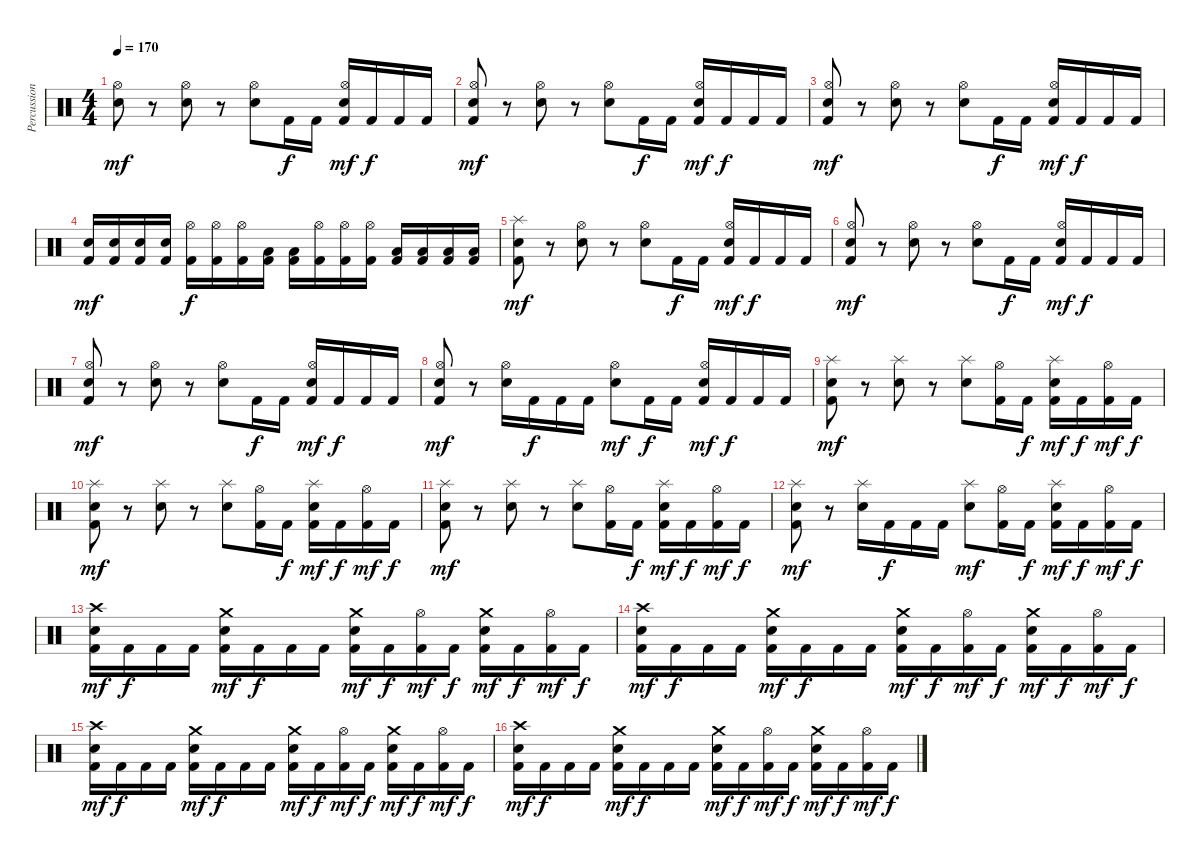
\track ("Percussion" "Percussion") {instrument percussion}
\staff {score}
\articulation defaults
\ts (4 4)
\tempo 170
\clef neutral
\ks c
("Snare (hit) 2" "Hi-Hat (open)").8{dy mf} r.8 ("Snare (hit) 2" "Hi-Hat (open)").8 r.8 ("Snare (hit) 2" "Hi-Hat (open)").8 "Kick (hit) 2".16{dy f} "Kick (hit) 2".16 ("Snare (hit) 2" "Hi-Hat (open)" "Kick (hit) 2").16{dy mf} "Kick (hit) 2".16{dy f} "Kick (hit) 2".16 "Kick (hit) 2".16 |
("Snare (hit) 2" "Hi-Hat (open)" "Kick (hit) 2").8{dy mf} r.8 ("Snare (hit) 2" "Hi-Hat (open)").8 r.8 ("Snare (hit) 2" "Hi-Hat (open)").8 "Kick (hit) 2".16{dy f} "Kick (hit) 2".16 ("Snare (hit) 2" "Hi-Hat (open)" "Kick (hit) 2").16{dy mf} "Kick (hit) 2".16{dy f} "Kick (hit) 2".16 "Kick (hit) 2".16 |
("Snare (hit) 2" "Hi-Hat (open)" "Kick (hit) 2").8{dy mf} r.8 ("Snare (hit) 2" "Hi-Hat (open)").8 r.8 ("Snare (hit) 2" "Hi-Hat (open)").8 "Kick (hit) 2".16{dy f} "Kick (hit) 2".16 ("Snare (hit) 2" "Hi-Hat (open)" "Kick (hit) 2").16{dy mf} "Kick (hit) 2".16{dy f} "Kick (hit) 2".16 "Kick (hit) 2".16 |
("Snare (hit) 2" "Kick (hit) 2").16{dy mf} ("Snare (hit) 2" "Kick (hit) 2").16 ("Snare (hit) 2" "Kick (hit) 2").16 ("Snare (hit) 2" "Kick (hit) 2").16 ("Hi-Hat (open)" "Kick (hit) 2").16{dy f} ("Hi-Hat (open)" "Kick (hit) 2").16 ("Hi-Hat (open)" "Kick (hit) 2").16 ("Low Tom (hit)" "Kick (hit) 2").16 ("Low Tom (hit)" "Kick (hit) 2").16 ("Hi-Hat (open)" "Kick (hit) 2").16 ("Hi-Hat (open)" "Kick (hit) 2").16 ("Hi-Hat (open)" "Kick (hit) 2").16 ("Low Tom (hit)" "Kick (hit) 2").16 ("Low Tom (hit)" "Kick (hit) 2").16 ("Low Tom (hit)" "Kick (hit) 2").16 ("Low Tom (hit)" "Kick (hit) 2").16 |
("Snare (hit) 2" "Splash (hit)" "Kick (hit) 2").8{dy mf} r.8 ("Snare (hit) 2" "Hi-Hat (open)").8 r.8 ("Snare (hit) 2" "Hi-Hat (open)").8 "Kick (hit) 2".16{dy f} "Kick (hit) 2".16 ("Snare (hit) 2" "Hi-Hat (open)" "Kick (hit) 2").16{dy mf} "Kick (hit) 2".16{dy f} "Kick (hit) 2".16 "Kick (hit) 2".16 |
("Snare (hit) 2" "Hi-Hat (open)" "Kick (hit) 2").8{dy mf} r.8 ("Snare (hit) 2" "Hi-Hat (open)").8 r.8 ("Snare (hit) 2" "Hi-Hat (open)").8 "Kick (hit) 2".16{dy f} "Kick (hit) 2".16 ("Snare (hit) 2" "Hi-Hat (open)" "Kick (hit) 2").16{dy mf} "Kick (hit) 2".16{dy f} "Kick (hit) 2".16 "Kick (hit) 2".16 |
("Snare (hit) 2" "Hi-Hat (open)" "Kick (hit) 2").8{dy mf} r.8 ("Snare (hit) 2" "Hi-Hat (open)").8 r.8 ("Snare (hit) 2" "Hi-Hat (open)").8 "Kick (hit) 2".16{dy f} "Kick (hit) 2".16 ("Snare (hit) 2" "Hi-Hat (open)" "Kick (hit) 2").16{dy mf} "Kick (hit) 2".16{dy f} "Kick (hit) 2".16 "Kick (hit) 2".16 |
("Snare (hit) 2" "Hi-Hat (open)" "Kick (hit) 2").8{dy mf} r.8 ("Snare (hit) 2" "Hi-Hat (open)").16 "Kick (hit) 2".16{dy f} "Kick (hit) 2".16 "Kick (hit) 2".16 ("Snare (hit) 2" "Hi-Hat (open)").8{dy mf} "Kick (hit) 2".16{dy f} "Kick (hit) 2".16 ("Snare (hit) 2" "Hi-Hat (open)" "Kick (hit) 2").16{dy mf} "Kick (hit) 2".16{dy f} "Kick (hit) 2".16 "Kick (hit) 2".16 |
("Snare (hit) 2" "Splash (hit)" "Kick (hit) 2").8{dy mf} r.8 ("Snare (hit) 2" "Splash (hit)").8 r.8 ("Snare (hit) 2" "Splash (hit)").8 ("Hi-Hat (open)" "Kick (hit) 2").16 "Kick (hit) 2".16{dy f} ("Snare (hit) 2" "Splash (hit)" "Kick (hit) 2").16{dy mf} "Kick (hit) 2".16{dy f} ("Hi-Hat (open)" "Kick (hit) 2").16{dy mf} "Kick (hit) 2".16{dy f} |
("Snare (hit) 2" "Splash (hit)" "Kick (hit) 2").8{dy mf} r.8 ("Snare (hit) 2" "Splash (hit)").8 r.8 ("Snare (hit) 2" "Splash (hit)").8 ("Hi-Hat (open)" "Kick (hit) 2").16 "Kick (hit) 2".16{dy f} ("Snare (hit) 2" "Splash (hit)" "Kick (hit) 2").16{dy mf} "Kick (hit) 2".16{dy f} ("Hi-Hat (open)" "Kick (hit) 2").16{dy mf} "Kick (hit) 2".16{dy f} |
("Snare (hit) 2" "Splash (hit)" "Kick (hit) 2").8{dy mf} r.8 ("Snare (hit) 2" "Splash (hit)").8 r.8 ("Snare (hit) 2" "Splash (hit)").8 ("Hi-Hat (open)" "Kick (hit) 2").16 "Kick (hit) 2".16{dy f} ("Snare (hit) 2" "Splash (hit)" "Kick (hit) 2").16{dy mf} "Kick (hit) 2".16{dy f} ("Hi-Hat (open)" "Kick (hit) 2").16{dy mf} "Kick (hit) 2".16{dy f} |
("Snare (hit) 2" "Splash (hit)" "Kick (hit) 2").8{dy mf} r.8 ("Snare (hit) 2" "Splash (hit)").16 "Kick (hit) 2".16{dy f} "Kick (hit) 2".16 "Kick (hit) 2".16 ("Snare (hit) 2" "Splash (hit)").8{dy mf} ("Hi-Hat (open)" "Kick (hit) 2").16 "Kick (hit) 2".16{dy f} ("Snare (hit) 2" "Splash (hit)" "Kick (hit) 2").16{dy mf} "Kick (hit) 2".16{dy f} ("Hi-Hat (open)" "Kick (hit) 2").16{dy mf} "Kick (hit) 2".16{dy f} |
("Snare (hit) 2" "Crash high (hit)" "Kick (hit) 2").16{dy mf} "Kick (hit) 2".16{dy f} "Kick (hit) 2".16 "Kick (hit) 2".16 ("Snare (hit) 2" "Crash medium (hit)" "Kick (hit) 2").16{dy mf} "Kick (hit) 2".16{dy f} "Kick (hit) 2".16 "Kick (hit) 2".16 ("Snare (hit) 2" "Crash medium (hit)" "Kick (hit) 2").16{dy mf} "Kick (hit) 2".16{dy f} ("Hi-Hat (open)" "Kick (hit) 2").16{dy mf} "Kick (hit) 2".16{dy f} ("Snare (hit) 2" "Crash medium (hit)" "Kick (hit) 2").16{dy mf} "Kick (hit) 2".16{dy f} ("Hi-Hat (open)" "Kick (hit) 2").16{dy mf} "Kick (hit) 2".16{dy f} |
("Snare (hit) 2" "Crash high (hit)" "Kick (hit) 2").16{dy mf} "Kick (hit) 2".16{dy f} "Kick (hit) 2".16 "Kick (hit) 2".16 ("Snare (hit) 2" "Crash medium (hit)" "Kick (hit) 2").16{dy mf} "Kick (hit) 2".16{dy f} "Kick (hit) 2".16 "Kick (hit) 2".16 ("Snare (hit) 2" "Crash medium (hit)" "Kick (hit) 2").16{dy mf} "Kick (hit) 2".16{dy f} ("Hi-Hat (open)" "Kick (hit) 2").16{dy mf} "Kick (hit) 2".16{dy f} ("Snare (hit) 2" "Crash medium (hit)" "Kick (hit) 2").16{dy mf} "Kick (hit) 2".16{dy f} ("Hi-Hat (open)" "Kick (hit) 2").16{dy mf} "Kick (hit) 2".16{dy f} |
("Snare (hit) 2" "Crash high (hit)" "Kick (hit) 2").16{dy mf} "Kick (hit) 2".16{dy f} "Kick (hit) 2".16 "Kick (hit) 2".16 ("Snare (hit) 2" "Crash medium (hit)" "Kick (hit) 2").16{dy mf} "Kick (hit) 2".16{dy f} "Kick (hit) 2".16 "Kick (hit) 2".16 ("Snare (hit) 2" "Crash medium (hit)" "Kick (hit) 2").16{dy mf} "Kick (hit) 2".16{dy f} ("Hi-Hat (open)" "Kick (hit) 2").16{dy mf} "Kick (hit) 2".16{dy f} ("Snare (hit) 2" "Crash medium (hit)" "Kick (hit) 2").16{dy mf} "Kick (hit) 2".16{dy f} ("Hi-Hat (open)" "Kick (hit) 2").16{dy mf} "Kick (hit) 2".16{dy f} |
("Snare (hit) 2" "Crash high (hit)" "Kick (hit) 2").16{dy mf} "Kick (hit) 2".16{dy f} "Kick (hit) 2".16 "Kick (hit) 2".16 ("Snare (hit) 2" "Crash medium (hit)" "Kick (hit) 2").16{dy mf} "Kick (hit) 2".16{dy f} "Kick (hit) 2".16 "Kick (hit) 2".16 ("Snare (hit) 2" "Crash medium (hit)" "Kick (hit) 2").16{dy mf} "Kick (hit) 2".16{dy f} ("Hi-Hat (open)" "Kick (hit) 2").16{dy mf} "Kick (hit) 2".16{dy f} ("Snare (hit) 2" "Crash medium (hit)" "Kick (hit) 2").16{dy mf} "Kick (hit) 2".16{dy f} ("Hi-Hat (open)" "Kick (hit) 2").16{dy mf} "Kick (hit) 2".16{dy f}
